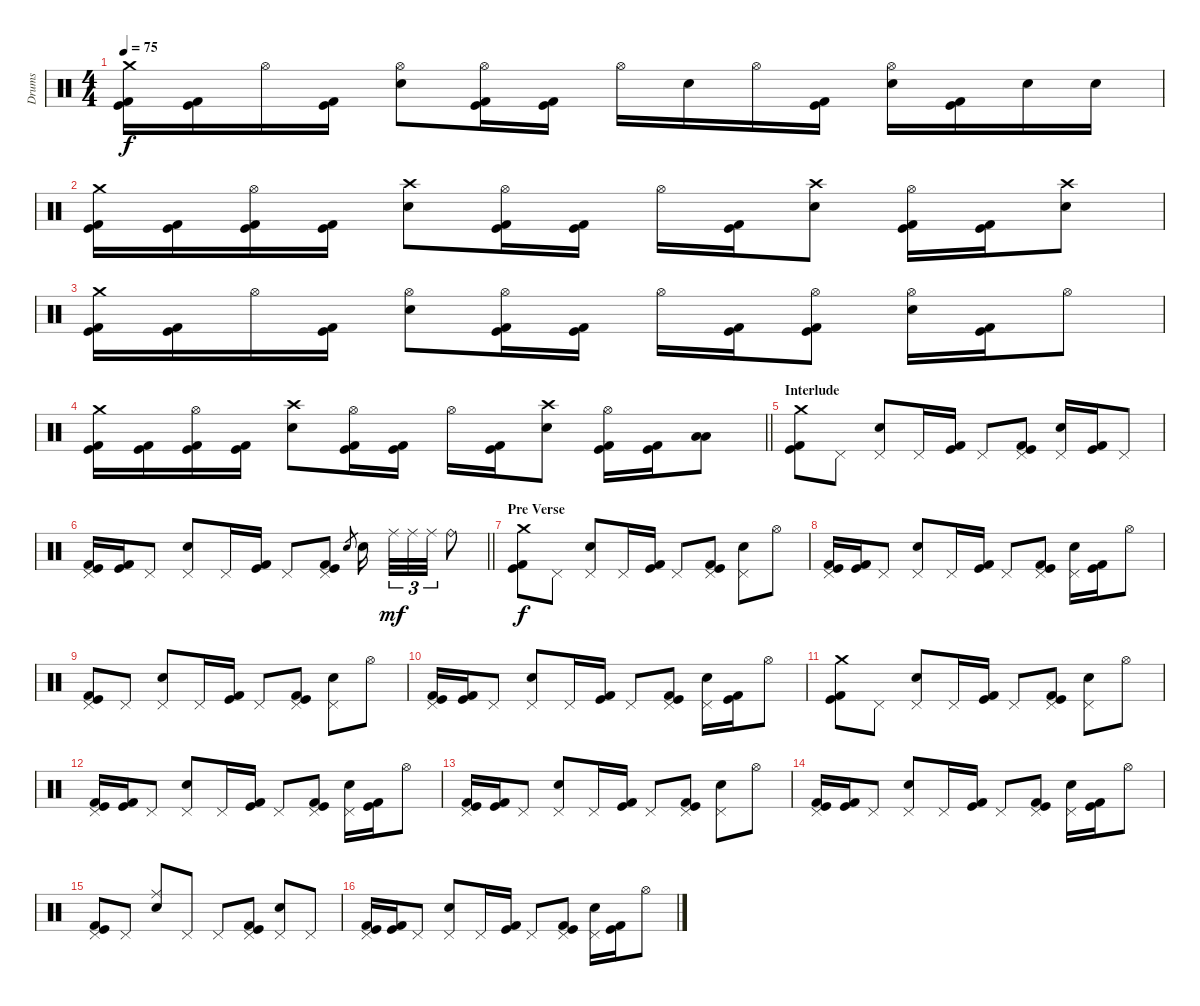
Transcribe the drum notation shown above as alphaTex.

\track ("Drums" "Drums") {instrument percussion}
\staff {score}
\articulation defaults
\ts (4 4)
\tempo 75
\clef neutral
\ks c
("Crash medium (hit)" "Kick (hit) 2" "Kick (hit)").16{dy f} ("Kick (hit) 2" "Kick (hit)").16 "Hi-Hat (open)".16 ("Kick (hit) 2" "Kick (hit)").16 ("Hi-Hat (open)" "Electric Snare (hit)").8 ("Hi-Hat (open)" "Kick (hit) 2" "Kick (hit)").16 ("Kick (hit) 2" "Kick (hit)").16 "Hi-Hat (open)".16 "Electric Snare (hit)".16 "Hi-Hat (open)".16 ("Kick (hit) 2" "Kick (hit)").16 ("Hi-Hat (open)" "Electric Snare (hit)").16 ("Kick (hit) 2" "Kick (hit)").16 "Electric Snare (hit)".16 "Electric Snare (hit)".16 |
("Crash medium (hit)" "Kick (hit) 2" "Kick (hit)").16 ("Kick (hit) 2" "Kick (hit)").16 ("Hi-Hat (open)" "Kick (hit) 2" "Kick (hit)").16 ("Kick (hit) 2" "Kick (hit)").16 ("Crash high (hit)" "Electric Snare (hit)").8 ("Hi-Hat (open)" "Kick (hit) 2" "Kick (hit)").16 ("Kick (hit) 2" "Kick (hit)").16 "Hi-Hat (open)".16 ("Kick (hit) 2" "Kick (hit)").16 ("Crash high (hit)" "Electric Snare (hit)").8 ("Hi-Hat (open)" "Kick (hit) 2" "Kick (hit)").16 ("Kick (hit) 2" "Kick (hit)").16 ("Crash high (hit)" "Electric Snare (hit)").8 |
("Crash medium (hit)" "Kick (hit) 2" "Kick (hit)").16 ("Kick (hit) 2" "Kick (hit)").16 "Hi-Hat (open)".16 ("Kick (hit) 2" "Kick (hit)").16 ("Hi-Hat (open)" "Electric Snare (hit)").8 ("Hi-Hat (open)" "Kick (hit) 2" "Kick (hit)").16 ("Kick (hit) 2" "Kick (hit)").16 "Hi-Hat (open)".16 ("Kick (hit) 2" "Kick (hit)").16 ("Hi-Hat (open)" "Kick (hit) 2" "Kick (hit)").8 ("Hi-Hat (open)" "Electric Snare (hit)").16 ("Kick (hit) 2" "Kick (hit)").16 "Hi-Hat (open)".8 |
\barLineRight lightlight
("Crash medium (hit)" "Kick (hit) 2" "Kick (hit)").16 ("Kick (hit) 2" "Kick (hit)").16 ("Hi-Hat (open)" "Kick (hit) 2" "Kick (hit)").16 ("Kick (hit) 2" "Kick (hit)").16 ("Crash high (hit)" "Electric Snare (hit)").8 ("Hi-Hat (open)" "Kick (hit) 2" "Kick (hit)").16 ("Kick (hit) 2" "Kick (hit)").16 "Hi-Hat (open)".16 ("Kick (hit) 2" "Kick (hit)").16 ("Crash high (hit)" "Electric Snare (hit)").8 ("Hi-Hat (open)" "Kick (hit) 2" "Kick (hit)").16 ("Kick (hit) 2" "Kick (hit)").16 ("Low Tom (hit)" "Low Tom (hit)").8 |
\section ("" "Interlude")
("Crash medium (hit)" "Kick (hit) 2" "Kick (hit)").8 "Pedal Hi-Hat (hit)".8 ("Pedal Hi-Hat (hit)" "Electric Snare (hit)").8 "Pedal Hi-Hat (hit)".16 ("Kick (hit) 2" "Kick (hit)").16 "Pedal Hi-Hat (hit)".8 ("Pedal Hi-Hat (hit)" "Kick (hit) 2" "Kick (hit)").8 ("Pedal Hi-Hat (hit)" "Electric Snare (hit)").16 ("Kick (hit) 2" "Kick (hit)").16 "Pedal Hi-Hat (hit)".8 |
\barLineRight lightlight
("Pedal Hi-Hat (hit)" "Kick (hit) 2" "Kick (hit)").16 ("Kick (hit) 2" "Kick (hit)").16 "Pedal Hi-Hat (hit)".8 ("Pedal Hi-Hat (hit)" "Electric Snare (hit)").8 "Pedal Hi-Hat (hit)".16 ("Kick (hit) 2" "Kick (hit)").16 "Pedal Hi-Hat (hit)".8 ("Pedal Hi-Hat (hit)" "Kick (hit) 2" "Kick (hit)").8 "Electric Snare (hit)".8{gr} "Electric Snare (hit)".16 "Ride (middle)".32{tu (3 2) dy mf} "Ride (middle)".32{tu (3 2)} "Ride (middle)".32{tu (3 2)} "Ride (bell)".8 |
\section ("" "Pre Verse")
("Crash medium (hit)" "Kick (hit) 2" "Kick (hit)").8{dy f} "Pedal Hi-Hat (hit)".8 ("Pedal Hi-Hat (hit)" "Electric Snare (hit)").8 "Pedal Hi-Hat (hit)".16 ("Kick (hit) 2" "Kick (hit)").16 "Pedal Hi-Hat (hit)".8 ("Pedal Hi-Hat (hit)" "Kick (hit) 2" "Kick (hit)").8 ("Pedal Hi-Hat (hit)" "Electric Snare (hit)").8 "Hi-Hat (open)".8 |
("Pedal Hi-Hat (hit)" "Kick (hit) 2" "Kick (hit)").16 ("Kick (hit) 2" "Kick (hit)").16 "Pedal Hi-Hat (hit)".8 ("Pedal Hi-Hat (hit)" "Electric Snare (hit)").8 "Pedal Hi-Hat (hit)".16 ("Kick (hit) 2" "Kick (hit)").16 "Pedal Hi-Hat (hit)".8 ("Pedal Hi-Hat (hit)" "Kick (hit) 2" "Kick (hit)").8 ("Pedal Hi-Hat (hit)" "Electric Snare (hit)").16 ("Kick (hit) 2" "Kick (hit)").16 "Hi-Hat (open)".8 |
("Pedal Hi-Hat (hit)" "Kick (hit) 2" "Kick (hit)").8 "Pedal Hi-Hat (hit)".8 ("Pedal Hi-Hat (hit)" "Electric Snare (hit)").8 "Pedal Hi-Hat (hit)".16 ("Kick (hit) 2" "Kick (hit)").16 "Pedal Hi-Hat (hit)".8 ("Pedal Hi-Hat (hit)" "Kick (hit) 2" "Kick (hit)").8 ("Pedal Hi-Hat (hit)" "Electric Snare (hit)").8 "Hi-Hat (open)".8 |
("Pedal Hi-Hat (hit)" "Kick (hit) 2" "Kick (hit)").16 ("Kick (hit) 2" "Kick (hit)").16 "Pedal Hi-Hat (hit)".8 ("Pedal Hi-Hat (hit)" "Electric Snare (hit)").8 "Pedal Hi-Hat (hit)".16 ("Kick (hit) 2" "Kick (hit)").16 "Pedal Hi-Hat (hit)".8 ("Pedal Hi-Hat (hit)" "Kick (hit) 2" "Kick (hit)").8 ("Pedal Hi-Hat (hit)" "Electric Snare (hit)").16 ("Kick (hit) 2" "Kick (hit)").16 "Hi-Hat (open)".8 |
("Crash medium (hit)" "Kick (hit) 2" "Kick (hit)").8 "Pedal Hi-Hat (hit)".8 ("Pedal Hi-Hat (hit)" "Electric Snare (hit)").8 "Pedal Hi-Hat (hit)".16 ("Kick (hit) 2" "Kick (hit)").16 "Pedal Hi-Hat (hit)".8 ("Pedal Hi-Hat (hit)" "Kick (hit) 2" "Kick (hit)").8 ("Pedal Hi-Hat (hit)" "Electric Snare (hit)").8 "Hi-Hat (open)".8 |
("Pedal Hi-Hat (hit)" "Kick (hit) 2" "Kick (hit)").16 ("Kick (hit) 2" "Kick (hit)").16 "Pedal Hi-Hat (hit)".8 ("Pedal Hi-Hat (hit)" "Electric Snare (hit)").8 "Pedal Hi-Hat (hit)".16 ("Kick (hit) 2" "Kick (hit)").16 "Pedal Hi-Hat (hit)".8 ("Pedal Hi-Hat (hit)" "Kick (hit) 2" "Kick (hit)").8 ("Pedal Hi-Hat (hit)" "Electric Snare (hit)").16 ("Kick (hit) 2" "Kick (hit)").16 "Hi-Hat (open)".8 |
("Pedal Hi-Hat (hit)" "Kick (hit) 2" "Kick (hit)").16 ("Kick (hit) 2" "Kick (hit)").16 "Pedal Hi-Hat (hit)".8 ("Pedal Hi-Hat (hit)" "Electric Snare (hit)").8 "Pedal Hi-Hat (hit)".16 ("Kick (hit) 2" "Kick (hit)").16 "Pedal Hi-Hat (hit)".8 ("Pedal Hi-Hat (hit)" "Kick (hit) 2" "Kick (hit)").8 ("Pedal Hi-Hat (hit)" "Electric Snare (hit)").8 "Hi-Hat (open)".8 |
("Pedal Hi-Hat (hit)" "Kick (hit) 2" "Kick (hit)").16 ("Kick (hit) 2" "Kick (hit)").16 "Pedal Hi-Hat (hit)".8 ("Pedal Hi-Hat (hit)" "Electric Snare (hit)").8 "Pedal Hi-Hat (hit)".16 ("Kick (hit) 2" "Kick (hit)").16 "Pedal Hi-Hat (hit)".8 ("Pedal Hi-Hat (hit)" "Kick (hit) 2" "Kick (hit)").8 ("Pedal Hi-Hat (hit)" "Electric Snare (hit)").16 ("Kick (hit) 2" "Kick (hit)").16 "Hi-Hat (open)".8 |
("Pedal Hi-Hat (hit)" "Kick (hit) 2" "Kick (hit)").8 "Pedal Hi-Hat (hit)".8 ("Ride (middle)" "Electric Snare (hit)").8 "Pedal Hi-Hat (hit)".8 "Pedal Hi-Hat (hit)".8 ("Pedal Hi-Hat (hit)" "Kick (hit) 2" "Kick (hit)").8 ("Pedal Hi-Hat (hit)" "Electric Snare (hit)").8 "Pedal Hi-Hat (hit)".8 |
("Pedal Hi-Hat (hit)" "Kick (hit) 2" "Kick (hit)").16 ("Kick (hit) 2" "Kick (hit)").16 "Pedal Hi-Hat (hit)".8 ("Pedal Hi-Hat (hit)" "Electric Snare (hit)").8 "Pedal Hi-Hat (hit)".16 ("Kick (hit) 2" "Kick (hit)").16 "Pedal Hi-Hat (hit)".8 ("Pedal Hi-Hat (hit)" "Kick (hit) 2" "Kick (hit)").8 ("Pedal Hi-Hat (hit)" "Electric Snare (hit)").16 ("Kick (hit) 2" "Kick (hit)").16 "Hi-Hat (open)".8
